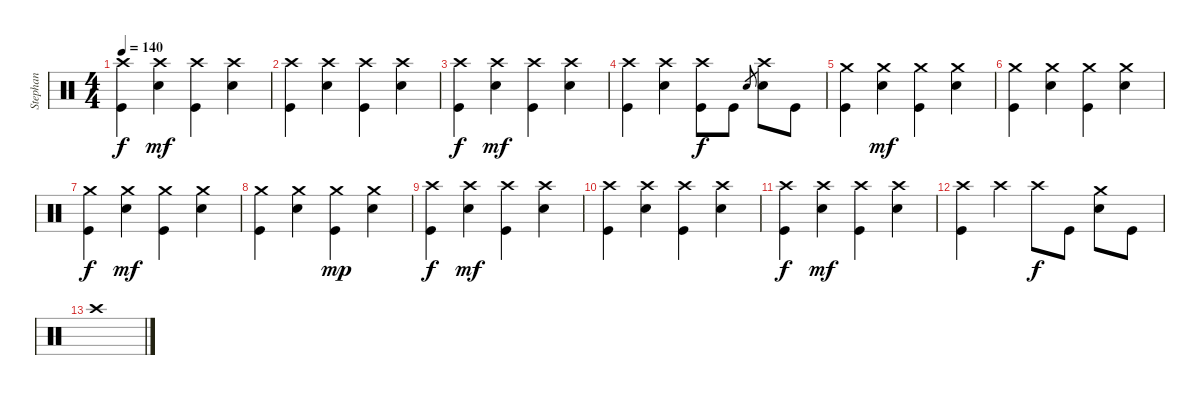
\track ("Stephan" "Stephan") {instrument percussion}
\staff {score}
\articulation defaults
\ts (4 4)
\tempo 140
\clef neutral
\ks c
("Kick (hit)" "Crash high (hit)").4{dy f} ("Snare (hit) 2" "Crash high (hit)").4{dy mf} ("Kick (hit)" "Crash high (hit)").4 ("Snare (hit) 2" "Crash high (hit)").4 |
("Kick (hit)" "Crash high (hit)").4 ("Snare (hit) 2" "Crash high (hit)").4 ("Kick (hit)" "Crash high (hit)").4 ("Snare (hit) 2" "Crash high (hit)").4 |
("Kick (hit)" "Crash high (hit)").4{dy f} ("Snare (hit) 2" "Crash high (hit)").4{dy mf} ("Kick (hit)" "Crash high (hit)").4 ("Snare (hit) 2" "Crash high (hit)").4 |
("Kick (hit)" "Crash high (hit)").4 ("Snare (hit) 2" "Crash high (hit)").4 ("Kick (hit)" "Crash high (hit)").8{dy f} "Kick (hit)".8 "Snare (hit) 2".8{gr} ("Snare (hit) 2" "Crash high (hit)").8 "Kick (hit)".8 |
("Kick (hit)" "Crash medium (hit)").4 ("Snare (hit) 2" "Crash medium (hit)").4{dy mf} ("Kick (hit)" "Crash medium (hit)").4 ("Snare (hit) 2" "Crash medium (hit)").4 |
("Kick (hit)" "Crash medium (hit)").4 ("Snare (hit) 2" "Crash medium (hit)").4 ("Kick (hit)" "Crash medium (hit)").4 ("Snare (hit) 2" "Crash medium (hit)").4 |
("Kick (hit)" "Crash medium (hit)").4{dy f} ("Snare (hit) 2" "Crash medium (hit)").4{dy mf} ("Kick (hit)" "Crash medium (hit)").4 ("Snare (hit) 2" "Crash medium (hit)").4 |
("Kick (hit)" "Crash medium (hit)").4 ("Snare (hit) 2" "Crash medium (hit)").4 ("Kick (hit)" "Crash medium (hit)").4{dy mp} ("Snare (hit) 2" "Crash medium (hit)").4 |
("Kick (hit)" "Crash high (hit)").4{dy f} ("Snare (hit) 2" "Crash high (hit)").4{dy mf} ("Kick (hit)" "Crash high (hit)").4 ("Snare (hit) 2" "Crash high (hit)").4 |
("Kick (hit)" "Crash high (hit)").4 ("Snare (hit) 2" "Crash high (hit)").4 ("Kick (hit)" "Crash high (hit)").4 ("Snare (hit) 2" "Crash high (hit)").4 |
("Kick (hit)" "Crash high (hit)").4{dy f} ("Snare (hit) 2" "Crash high (hit)").4{dy mf} ("Kick (hit)" "Crash high (hit)").4 ("Snare (hit) 2" "Crash high (hit)").4 |
("Kick (hit)" "Crash high (hit)").4 "Crash high (hit)".4 "Crash high (hit)".8{dy f} "Kick (hit)".8 ("Snare (hit) 2" "Crash medium (hit)").8 "Kick (hit)".8 |
"Crash high (hit)".1
